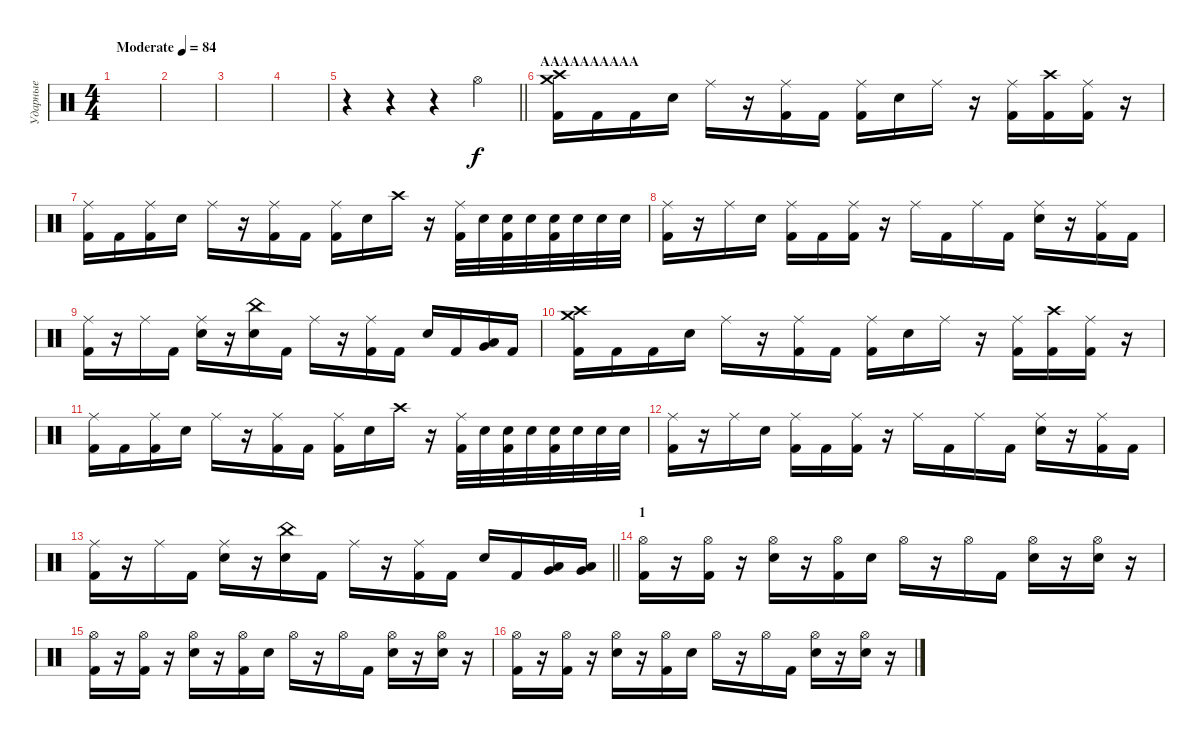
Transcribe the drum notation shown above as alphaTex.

\track ("Ударные" "Ударные") {instrument percussion}
\staff {score}
\articulation defaults
\ts (4 4)
\tempo (84 "Moderate")
\clef neutral
\ks c
|
|
|
|
\barLineRight lightlight
r.4 r.4 r.4 "Hi-Hat (open)".4 |
\section ("" "АААААААААА")
("Crash high (hit)" "Crash medium (hit)" "Kick (hit) 2").16 "Kick (hit) 2".16 "Kick (hit) 2".16 "Snare (hit) 2".16 "Ride (middle)".16 r.16 ("Ride (middle)" "Kick (hit) 2").16 "Kick (hit) 2".16 ("Ride (middle)" "Kick (hit) 2").16 "Snare (hit) 2".16 "Ride (middle)".16 r.16 ("Ride (middle)" "Kick (hit) 2").16 ("Crash high (hit)" "Kick (hit) 2").16 ("Ride (middle)" "Kick (hit) 2").16 r.16 |
("Ride (middle)" "Kick (hit) 2").16 "Kick (hit) 2".16 ("Ride (middle)" "Kick (hit) 2").16 "Snare (hit) 2".16 "Ride (middle)".16 r.16 ("Ride (middle)" "Kick (hit) 2").16 "Kick (hit) 2".16 ("Ride (middle)" "Kick (hit) 2").16 "Snare (hit) 2".16 "Crash high (hit)".16 r.16 ("Ride (middle)" "Kick (hit) 2").32 "Snare (hit) 2".32 ("Snare (hit) 2" "Kick (hit) 2").32 "Snare (hit) 2".32 ("Snare (hit) 2" "Kick (hit) 2").32 "Snare (hit) 2".32 "Snare (hit) 2".32 "Snare (hit) 2".32 |
("Ride (middle)" "Kick (hit) 2").16 r.16 "Ride (middle)".16 "Snare (hit) 2".16 ("Ride (middle)" "Kick (hit) 2").16 "Kick (hit) 2".16 ("Ride (middle)" "Kick (hit) 2").16 r.16 "Ride (middle)".16 "Kick (hit) 2".16 "Ride (middle)".16 "Kick (hit) 2".16 ("Ride (middle)" "Snare (hit) 2").16 r.16 ("Ride (middle)" "Kick (hit) 2").16 "Kick (hit) 2".16 |
("Ride (middle)" "Kick (hit) 2").16 r.16 "Ride (middle)".16 "Kick (hit) 2".16 ("Ride (middle)" "Snare (hit) 2").16 r.16 ("China (hit)" "Snare (hit) 2").16 "Kick (hit) 2".16 "Ride (middle)".16 r.16 ("Ride (middle)" "Kick (hit) 2").16 "Kick (hit) 2".16 "Snare (hit) 2".16 "Kick (hit) 2".16 ("Low Tom (hit)" "Very Low Tom (hit)").16 "Kick (hit) 2".16 |
("Crash high (hit)" "Crash medium (hit)" "Kick (hit) 2").16 "Kick (hit) 2".16 "Kick (hit) 2".16 "Snare (hit) 2".16 "Ride (middle)".16 r.16 ("Ride (middle)" "Kick (hit) 2").16 "Kick (hit) 2".16 ("Ride (middle)" "Kick (hit) 2").16 "Snare (hit) 2".16 "Ride (middle)".16 r.16 ("Ride (middle)" "Kick (hit) 2").16 ("Crash high (hit)" "Kick (hit) 2").16 ("Ride (middle)" "Kick (hit) 2").16 r.16 |
("Ride (middle)" "Kick (hit) 2").16 "Kick (hit) 2".16 ("Ride (middle)" "Kick (hit) 2").16 "Snare (hit) 2".16 "Ride (middle)".16 r.16 ("Ride (middle)" "Kick (hit) 2").16 "Kick (hit) 2".16 ("Ride (middle)" "Kick (hit) 2").16 "Snare (hit) 2".16 "Crash high (hit)".16 r.16 ("Ride (middle)" "Kick (hit) 2").32 "Snare (hit) 2".32 ("Snare (hit) 2" "Kick (hit) 2").32 "Snare (hit) 2".32 ("Snare (hit) 2" "Kick (hit) 2").32 "Snare (hit) 2".32 "Snare (hit) 2".32 "Snare (hit) 2".32 |
("Ride (middle)" "Kick (hit) 2").16 r.16 "Ride (middle)".16 "Snare (hit) 2".16 ("Ride (middle)" "Kick (hit) 2").16 "Kick (hit) 2".16 ("Ride (middle)" "Kick (hit) 2").16 r.16 "Ride (middle)".16 "Kick (hit) 2".16 "Ride (middle)".16 "Kick (hit) 2".16 ("Ride (middle)" "Snare (hit) 2").16 r.16 ("Ride (middle)" "Kick (hit) 2").16 "Kick (hit) 2".16 |
\barLineRight lightlight
("Ride (middle)" "Kick (hit) 2").16 r.16 "Ride (middle)".16 "Kick (hit) 2".16 ("Ride (middle)" "Snare (hit) 2").16 r.16 ("China (hit)" "Snare (hit) 2").16 "Kick (hit) 2".16 "Ride (middle)".16 r.16 ("Ride (middle)" "Kick (hit) 2").16 "Kick (hit) 2".16 "Snare (hit) 2".16 "Kick (hit) 2".16 ("Low Tom (hit)" "Very Low Tom (hit)").16 ("Very Low Tom (hit)" "Low Floor Tom (hit)").16 |
\section ("" "1")
("Hi-Hat (open)" "Kick (hit) 2").16 r.16 ("Hi-Hat (open)" "Kick (hit) 2").16 r.16 ("Hi-Hat (open)" "Snare (hit) 2").16 r.16 ("Hi-Hat (open)" "Kick (hit) 2").16 "Snare (hit) 2".16 "Hi-Hat (open)".16 r.16 "Hi-Hat (open)".16 "Kick (hit) 2".16 ("Hi-Hat (open)" "Snare (hit) 2").16 r.16 ("Hi-Hat (open)" "Snare (hit) 2").16 r.16 |
("Hi-Hat (open)" "Kick (hit) 2").16 r.16 ("Hi-Hat (open)" "Kick (hit) 2").16 r.16 ("Hi-Hat (open)" "Snare (hit) 2").16 r.16 ("Hi-Hat (open)" "Kick (hit) 2").16 "Snare (hit) 2".16 "Hi-Hat (open)".16 r.16 "Hi-Hat (open)".16 "Kick (hit) 2".16 ("Hi-Hat (open)" "Snare (hit) 2").16 r.16 ("Hi-Hat (open)" "Snare (hit) 2").16 r.16 |
("Hi-Hat (open)" "Kick (hit) 2").16 r.16 ("Hi-Hat (open)" "Kick (hit) 2").16 r.16 ("Hi-Hat (open)" "Snare (hit) 2").16 r.16 ("Hi-Hat (open)" "Kick (hit) 2").16 "Snare (hit) 2".16 "Hi-Hat (open)".16 r.16 "Hi-Hat (open)".16 "Kick (hit) 2".16 ("Hi-Hat (open)" "Snare (hit) 2").16 r.16 ("Hi-Hat (open)" "Snare (hit) 2").16 r.16
